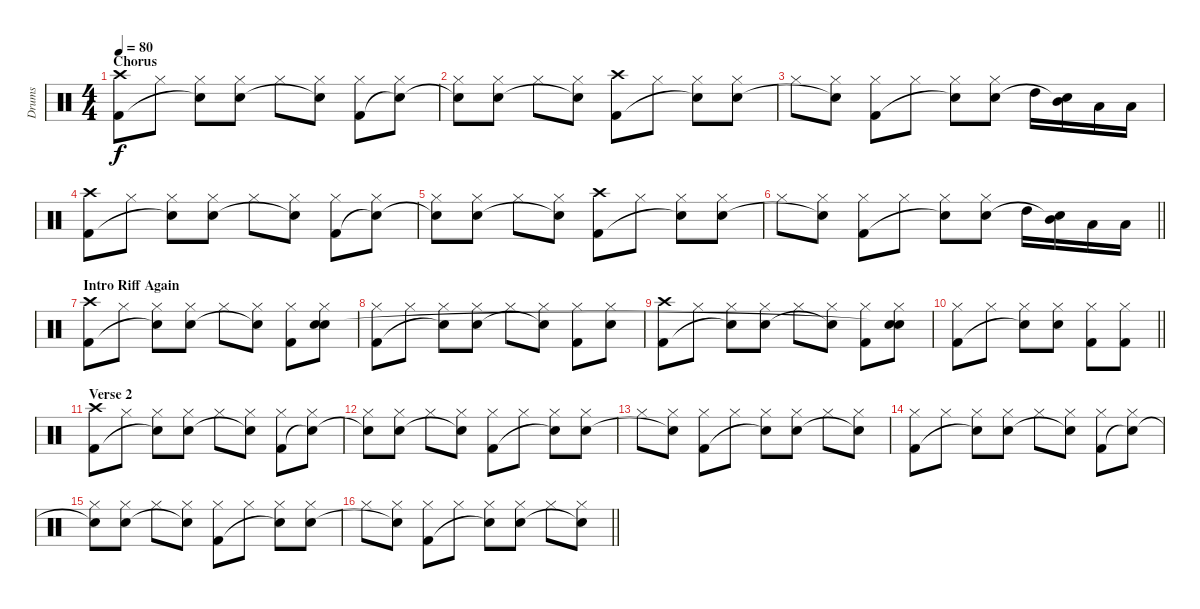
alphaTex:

\track ("Drums" "Drums") {instrument percussion}
\staff {score}
\articulation defaults
\ts (4 4)
\section ("" "Chorus")
\tempo 80
\clef neutral
\ks c
("Crash high (hit)" "Kick (hit) 2").8{dy f} "Hi-Hat (closed)".8 ("Hi-Hat (closed)" "Snare (hit)"{t}).8 ("Hi-Hat (closed)" "Electric Snare (hit)").8 "Hi-Hat (closed)".8 ("Hi-Hat (closed)" "Snare (hit)"{t}).8 ("Hi-Hat (closed)" "Kick (hit) 2").8 ("Hi-Hat (closed)" "Snare (hit)"{t}).8 |
("Hi-Hat (closed)" "Snare (hit)"{t}).8 ("Hi-Hat (closed)" "Electric Snare (hit)").8 "Hi-Hat (closed)".8 ("Hi-Hat (closed)" "Snare (hit)"{t}).8 ("Crash high (hit)" "Kick (hit) 2").8 "Hi-Hat (closed)".8 ("Hi-Hat (closed)" "Snare (hit)"{t}).8 ("Hi-Hat (closed)" "Electric Snare (hit)").8 |
"Hi-Hat (closed)".8 ("Hi-Hat (closed)" "Snare (hit)"{t}).8 ("Hi-Hat (closed)" "Kick (hit) 2").8 "Hi-Hat (closed)".8 ("Hi-Hat (closed)" "Snare (hit)"{t}).8 ("Hi-Hat (closed)" "Electric Snare (hit)").8 "High Tom (hit)".16 ("Mid Tom (hit)" "Snare (hit)"{t}).16 "Low Tom (hit)".16 "Low Tom (hit)".16 |
("Crash high (hit)" "Kick (hit) 2").8 "Hi-Hat (closed)".8 ("Hi-Hat (closed)" "Snare (hit)"{t}).8 ("Hi-Hat (closed)" "Electric Snare (hit)").8 "Hi-Hat (closed)".8 ("Hi-Hat (closed)" "Snare (hit)"{t}).8 ("Hi-Hat (closed)" "Kick (hit) 2").8 ("Hi-Hat (closed)" "Snare (hit)"{t}).8 |
("Hi-Hat (closed)" "Snare (hit)"{t}).8 ("Hi-Hat (closed)" "Electric Snare (hit)").8 "Hi-Hat (closed)".8 ("Hi-Hat (closed)" "Snare (hit)"{t}).8 ("Crash high (hit)" "Kick (hit) 2").8 "Hi-Hat (closed)".8 ("Hi-Hat (closed)" "Snare (hit)"{t}).8 ("Hi-Hat (closed)" "Electric Snare (hit)").8 |
\barLineRight lightlight "Hi-Hat (closed)".8
("Hi-Hat (closed)" "Snare (hit)"{t}).8 ("Hi-Hat (closed)" "Kick (hit) 2").8 "Hi-Hat (closed)".8 ("Hi-Hat (closed)" "Snare (hit)"{t}).8 ("Hi-Hat (closed)" "Electric Snare (hit)").8 "High Tom (hit)".16 ("Mid Tom (hit)" "Snare (hit)"{t}).16 "Low Tom (hit)".16 "Low Tom (hit)".16 |
\section ("" "Intro Riff Again")
("Crash high (hit)" "Kick (hit) 2").8 "Hi-Hat (closed)".8 ("Hi-Hat (closed)" "Snare (hit)"{t}).8 ("Hi-Hat (closed)" "Electric Snare (hit)").8 "Hi-Hat (closed)".8 ("Hi-Hat (closed)" "Snare (hit)"{t}).8 ("Hi-Hat (closed)" "Kick (hit) 2").8 ("Hi-Hat (closed)" "Electric Snare (hit)" "Snare (hit)").8 |
("Hi-Hat (closed)" "Kick (hit) 2").8 "Hi-Hat (closed)".8 ("Hi-Hat (closed)" "Snare (hit)"{t}).8 ("Hi-Hat (closed)" "Electric Snare (hit)").8 "Hi-Hat (closed)".8 ("Hi-Hat (closed)" "Snare (hit)"{t}).8 ("Hi-Hat (closed)" "Kick (hit) 2").8 ("Hi-Hat (closed)" "Electric Snare (hit)").8 |
("Crash high (hit)" "Kick (hit) 2").8 "Hi-Hat (closed)".8 ("Hi-Hat (closed)" "Snare (hit)"{t}).8 ("Hi-Hat (closed)" "Electric Snare (hit)").8 "Hi-Hat (closed)".8 ("Hi-Hat (closed)" "Snare (hit)"{t}).8 ("Hi-Hat (closed)" "Kick (hit) 2").8 ("Hi-Hat (closed)" "Electric Snare (hit)" "Snare (hit)"{t}).8 |
\barLineRight lightlight
("Hi-Hat (closed)" "Kick (hit) 2").8 "Hi-Hat (closed)".8 ("Hi-Hat (closed)" "Snare (hit)"{t}).8 ("Hi-Hat (closed)" "Electric Snare (hit)").8 ("Hi-Hat (closed)" "Kick (hit) 2").8 ("Hi-Hat (closed)" "Kick (hit) 2").8 |
\section ("" "Verse 2")
("Crash high (hit)" "Kick (hit) 2").8 "Hi-Hat (closed)".8 ("Hi-Hat (closed)" "Snare (hit)"{t}).8 ("Hi-Hat (closed)" "Electric Snare (hit)").8 "Hi-Hat (closed)".8 ("Hi-Hat (closed)" "Snare (hit)"{t}).8 ("Hi-Hat (closed)" "Kick (hit) 2").8 ("Hi-Hat (closed)" "Snare (hit)"{t}).8 |
("Hi-Hat (closed)" "Snare (hit)"{t}).8 ("Hi-Hat (closed)" "Electric Snare (hit)").8 "Hi-Hat (closed)".8 ("Hi-Hat (closed)" "Snare (hit)"{t}).8 ("Hi-Hat (closed)" "Kick (hit) 2").8 "Hi-Hat (closed)".8 ("Hi-Hat (closed)" "Snare (hit)"{t}).8 ("Hi-Hat (closed)" "Electric Snare (hit)").8 |
"Hi-Hat (closed)".8 ("Hi-Hat (closed)" "Snare (hit)"{t}).8 ("Hi-Hat (closed)" "Kick (hit) 2").8 "Hi-Hat (closed)".8 ("Hi-Hat (closed)" "Snare (hit)"{t}).8 ("Hi-Hat (closed)" "Electric Snare (hit)").8 "Hi-Hat (closed)".8 ("Hi-Hat (closed)" "Snare (hit)"{t}).8 |
("Hi-Hat (closed)" "Kick (hit) 2").8 "Hi-Hat (closed)".8 ("Hi-Hat (closed)" "Snare (hit)"{t}).8 ("Hi-Hat (closed)" "Electric Snare (hit)").8 "Hi-Hat (closed)".8 ("Hi-Hat (closed)" "Snare (hit)"{t}).8 ("Hi-Hat (closed)" "Kick (hit) 2").8 ("Hi-Hat (closed)" "Snare (hit)"{t}).8 |
("Hi-Hat (closed)" "Snare (hit)"{t}).8 ("Hi-Hat (closed)" "Electric Snare (hit)").8 "Hi-Hat (closed)".8 ("Hi-Hat (closed)" "Snare (hit)"{t}).8 ("Hi-Hat (closed)" "Kick (hit) 2").8 "Hi-Hat (closed)".8 ("Hi-Hat (closed)" "Snare (hit)"{t}).8 ("Hi-Hat (closed)" "Electric Snare (hit)").8 |
\barLineRight lightlight "Hi-Hat (closed)".8
("Hi-Hat (closed)" "Snare (hit)"{t}).8 ("Hi-Hat (closed)" "Kick (hit) 2").8 "Hi-Hat (closed)".8 ("Hi-Hat (closed)" "Snare (hit)"{t}).8 ("Hi-Hat (closed)" "Electric Snare (hit)").8 "Hi-Hat (closed)".8 ("Hi-Hat (closed)" "Snare (hit)"{t}).8
